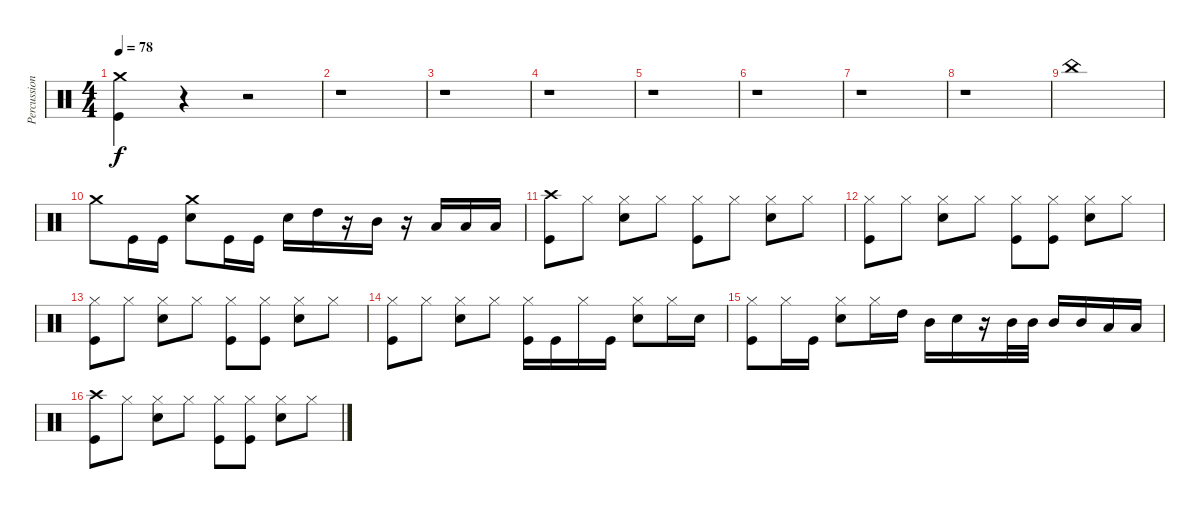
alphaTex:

\track ("Percussion" "Percussion") {instrument percussion}
\staff {score}
\articulation defaults
\ts (4 4)
\tempo 78
\clef neutral
\ks c
("Crash medium (hit)" "Kick (hit)").4{dy f} r.4 r.2 |
r.1 |
r.1 |
r.1 |
r.1 |
r.1 |
r.1 |
r.1 |
"China (hit)".1 |
"Crash medium (hit)".8 "Kick (hit)".16 "Kick (hit)".16 ("Crash medium (hit)" "Snare (hit) 2").8 "Kick (hit)".16 "Kick (hit)".16 "Snare (hit) 2".16 "High Tom (hit)".16 r.16 "Mid Tom (hit)".16 r.16 "Low Floor Tom (hit)".16 "Low Floor Tom (hit)".16 "Low Floor Tom (hit)".16 |
("Crash high (hit)" "Kick (hit)").8 "Hi-Hat (closed)".8 ("Hi-Hat (closed)" "Snare (hit) 2").8 "Hi-Hat (closed)".8 ("Hi-Hat (closed)" "Kick (hit)").8 "Hi-Hat (closed)".8 ("Hi-Hat (closed)" "Snare (hit) 2").8 "Hi-Hat (closed)".8 |
("Hi-Hat (closed)" "Kick (hit)").8 "Hi-Hat (closed)".8 ("Hi-Hat (closed)" "Snare (hit) 2").8 "Hi-Hat (closed)".8 ("Hi-Hat (closed)" "Kick (hit)").8 ("Hi-Hat (closed)" "Kick (hit)").8 ("Hi-Hat (closed)" "Snare (hit) 2").8 "Hi-Hat (closed)".8 |
("Hi-Hat (closed)" "Kick (hit)").8 "Hi-Hat (closed)".8 ("Hi-Hat (closed)" "Snare (hit) 2").8 "Hi-Hat (closed)".8 ("Hi-Hat (closed)" "Kick (hit)").8 ("Hi-Hat (closed)" "Kick (hit)").8 ("Hi-Hat (closed)" "Snare (hit) 2").8 "Hi-Hat (closed)".8 |
("Hi-Hat (closed)" "Kick (hit)").8 "Hi-Hat (closed)".8 ("Hi-Hat (closed)" "Snare (hit) 2").8 "Hi-Hat (closed)".8 ("Hi-Hat (closed)" "Kick (hit)").16 "Kick (hit)".16 "Hi-Hat (closed)".16 "Kick (hit)".16 ("Hi-Hat (closed)" "Snare (hit) 2").8 "Hi-Hat (closed)".16 "Snare (hit) 2".16 |
("Hi-Hat (closed)" "Kick (hit)").8 "Hi-Hat (closed)".16 "Kick (hit)".16 ("Hi-Hat (closed)" "Snare (hit) 2").8 "Hi-Hat (closed)".16 "High Tom (hit)".16 "Mid Tom (hit)".16 "Snare (hit) 2".16 r.16 "Mid Tom (hit)".32 "Mid Tom (hit)".32 "Mid Tom (hit)".16 "Mid Tom (hit)".16 "Low Tom (hit)".16 "Low Tom (hit)".16 |
("Crash high (hit)" "Kick (hit)").8 "Hi-Hat (closed)".8 ("Hi-Hat (closed)" "Snare (hit) 2").8 "Hi-Hat (closed)".8 ("Hi-Hat (closed)" "Kick (hit)").8 ("Hi-Hat (closed)" "Kick (hit)").8 ("Hi-Hat (closed)" "Snare (hit) 2").8 "Hi-Hat (closed)".8
